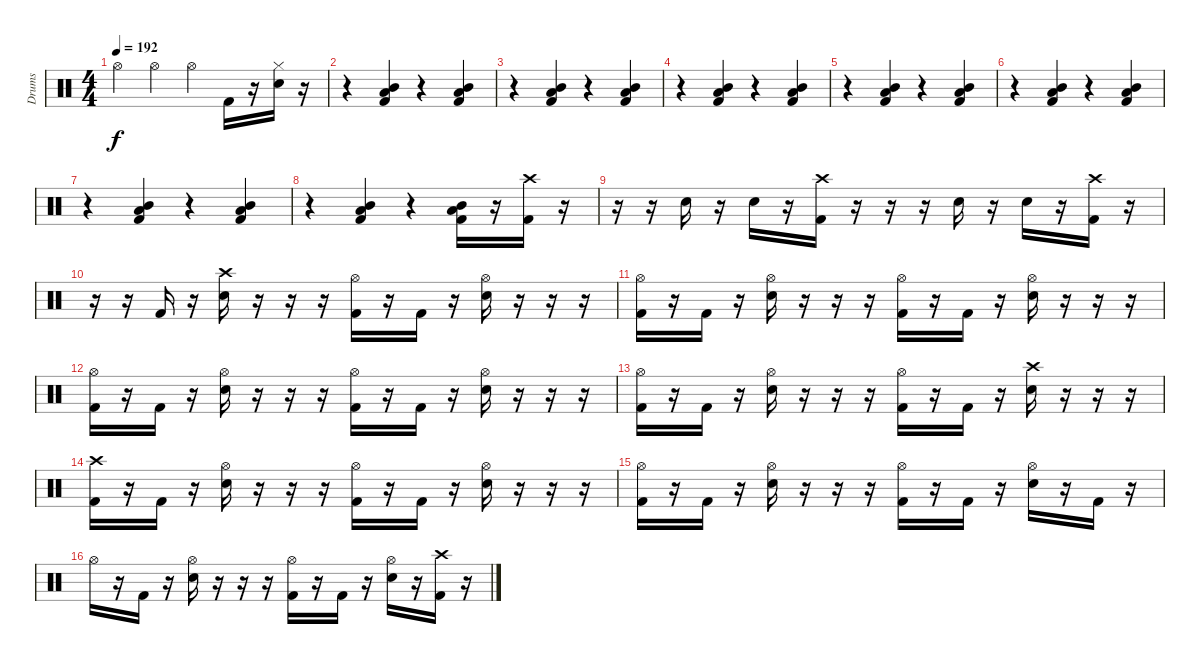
\track ("Drums" "Drums") {instrument percussion}
\staff {score}
\articulation defaults
\ts (4 4)
\tempo 192
\clef neutral
\ks c "Hi-Hat (open)".4{dy f} "Hi-Hat (open)".4 "Hi-Hat (open)".4 "Kick (hit) 2".16
r.16 ("Hi-Hat (closed)" "Electric Snare (hit)").16 r.16 |
r.4 ("Low Tom (hit)" "Mid Tom (hit)" "Kick (hit) 2").4 r.4 ("Low Tom (hit)" "Mid Tom (hit)" "Kick (hit) 2").4 |
r.4 ("Low Tom (hit)" "Mid Tom (hit)" "Kick (hit) 2").4 r.4 ("Low Tom (hit)" "Mid Tom (hit)" "Kick (hit) 2").4 |
r.4 ("Low Tom (hit)" "Mid Tom (hit)" "Kick (hit) 2").4 r.4 ("Low Tom (hit)" "Mid Tom (hit)" "Kick (hit) 2").4 |
r.4 ("Low Tom (hit)" "Mid Tom (hit)" "Kick (hit) 2").4 r.4 ("Low Tom (hit)" "Mid Tom (hit)" "Kick (hit) 2").4 |
r.4 ("Low Tom (hit)" "Mid Tom (hit)" "Kick (hit) 2").4 r.4 ("Low Tom (hit)" "Mid Tom (hit)" "Kick (hit) 2").4 |
r.4 ("Low Tom (hit)" "Mid Tom (hit)" "Kick (hit) 2").4 r.4 ("Low Tom (hit)" "Mid Tom (hit)" "Kick (hit) 2").4 |
r.4 ("Low Tom (hit)" "Mid Tom (hit)" "Kick (hit) 2").4 r.4 ("Low Tom (hit)" "Mid Tom (hit)" "Kick (hit) 2").16 r.16 ("Crash high (hit)" "Kick (hit) 2").16 r.16 |
r.16 r.16 "Electric Snare (hit)".16 r.16 "Electric Snare (hit)".16 r.16 ("Crash high (hit)" "Kick (hit) 2").16 r.16 r.16 r.16 "Electric Snare (hit)".16 r.16 "Electric Snare (hit)".16 r.16 ("Crash high (hit)" "Kick (hit) 2").16 r.16 |
r.16 r.16 "Kick (hit) 2".16 r.16 ("Crash high (hit)" "Electric Snare (hit)").16 r.16 r.16 r.16 ("Hi-Hat (open)" "Kick (hit) 2").16 r.16 "Kick (hit) 2".16 r.16 ("Hi-Hat (open)" "Electric Snare (hit)").16 r.16 r.16 r.16 |
("Hi-Hat (open)" "Kick (hit) 2").16 r.16 "Kick (hit) 2".16 r.16 ("Hi-Hat (open)" "Electric Snare (hit)").16 r.16 r.16 r.16 ("Hi-Hat (open)" "Kick (hit) 2").16 r.16 "Kick (hit) 2".16 r.16 ("Hi-Hat (open)" "Electric Snare (hit)").16 r.16 r.16 r.16 |
("Hi-Hat (open)" "Kick (hit) 2").16 r.16 "Kick (hit) 2".16 r.16 ("Hi-Hat (open)" "Electric Snare (hit)").16 r.16 r.16 r.16 ("Hi-Hat (open)" "Kick (hit) 2").16 r.16 "Kick (hit) 2".16 r.16 ("Hi-Hat (open)" "Electric Snare (hit)").16 r.16 r.16 r.16 |
("Hi-Hat (open)" "Kick (hit) 2").16 r.16 "Kick (hit) 2".16 r.16 ("Hi-Hat (open)" "Electric Snare (hit)").16 r.16 r.16 r.16 ("Hi-Hat (open)" "Kick (hit) 2").16 r.16 "Kick (hit) 2".16 r.16 ("Crash high (hit)" "Electric Snare (hit)").16 r.16 r.16 r.16 |
("Crash high (hit)" "Kick (hit) 2").16 r.16 "Kick (hit) 2".16 r.16 ("Hi-Hat (open)" "Electric Snare (hit)").16 r.16 r.16 r.16 ("Hi-Hat (open)" "Kick (hit) 2").16 r.16 "Kick (hit) 2".16 r.16 ("Hi-Hat (open)" "Electric Snare (hit)").16 r.16 r.16 r.16 |
("Hi-Hat (open)" "Kick (hit) 2").16 r.16 "Kick (hit) 2".16 r.16 ("Hi-Hat (open)" "Electric Snare (hit)").16 r.16 r.16 r.16 ("Hi-Hat (open)" "Kick (hit) 2").16 r.16 "Kick (hit) 2".16 r.16 ("Hi-Hat (open)" "Electric Snare (hit)").16 r.16 "Kick (hit) 2".16 r.16 |
"Hi-Hat (open)".16 r.16 "Kick (hit) 2".16 r.16 ("Hi-Hat (open)" "Electric Snare (hit)").16 r.16 r.16 r.16 ("Hi-Hat (open)" "Kick (hit) 2").16 r.16 "Kick (hit) 2".16 r.16 ("Hi-Hat (open)" "Electric Snare (hit)").16 r.16 ("Crash high (hit)" "Kick (hit) 2").16 r.16
